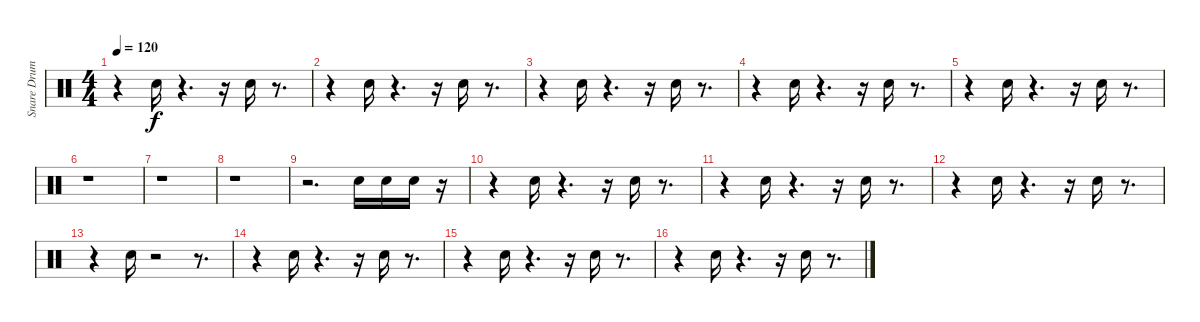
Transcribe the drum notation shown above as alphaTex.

\track ("Snare Drum" "Snare Drum") {instrument percussion}
\staff {score}
\articulation defaults
\ts (4 4)
\tempo 120
\clef neutral
\ks c
r.4{dy f} "Snare (hit) 2".16 r.4{d} r.16 "Snare (hit) 2".16 r.8{d} |
r.4 "Snare (hit) 2".16 r.4{d} r.16 "Snare (hit) 2".16 r.8{d} |
r.4 "Snare (hit) 2".16 r.4{d} r.16 "Snare (hit) 2".16 r.8{d} |
r.4 "Snare (hit) 2".16 r.4{d} r.16 "Snare (hit) 2".16 r.8{d} |
r.4 "Snare (hit) 2".16 r.4{d} r.16 "Snare (hit) 2".16 r.8{d} |
r.1 |
r.1 |
r.1 |
r.2{d} "Snare (hit) 2".16 "Snare (hit) 2".16 "Snare (hit) 2".16 r.16 |
r.4 "Snare (hit) 2".16 r.4{d} r.16 "Snare (hit) 2".16 r.8{d} |
r.4 "Snare (hit) 2".16 r.4{d} r.16 "Snare (hit) 2".16 r.8{d} |
r.4 "Snare (hit) 2".16 r.4{d} r.16 "Snare (hit) 2".16 r.8{d} |
r.4 "Snare (hit) 2".16 r.2 r.8{d} |
r.4 "Snare (hit) 2".16 r.4{d} r.16 "Snare (hit) 2".16 r.8{d} |
r.4 "Snare (hit) 2".16 r.4{d} r.16 "Snare (hit) 2".16 r.8{d} |
r.4 "Snare (hit) 2".16 r.4{d} r.16 "Snare (hit) 2".16 r.8{d}
